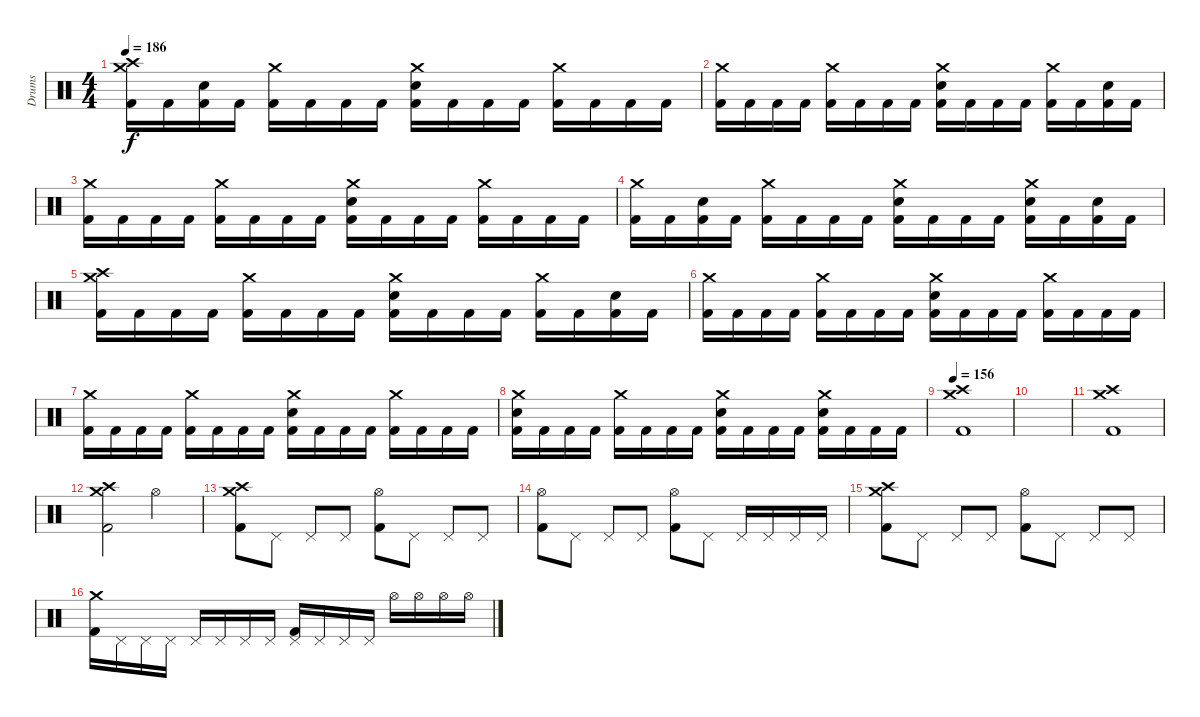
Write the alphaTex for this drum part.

\track ("Drums" "Drums") {instrument percussion}
\staff {score}
\articulation defaults
\ts (4 4)
\tempo 186
\clef neutral
\ks c
("Crash high (hit)" "Crash medium (hit)" "Kick (hit) 2").16{dy f} "Kick (hit) 2".16 ("Snare (hit) 2" "Kick (hit) 2").16 "Kick (hit) 2".16 ("Crash medium (hit)" "Kick (hit) 2").16 "Kick (hit) 2".16 "Kick (hit) 2".16 "Kick (hit) 2".16 ("Crash medium (hit)" "Snare (hit) 2" "Kick (hit) 2").16 "Kick (hit) 2".16 "Kick (hit) 2".16 "Kick (hit) 2".16 ("Crash medium (hit)" "Kick (hit) 2").16 "Kick (hit) 2".16 "Kick (hit) 2".16 "Kick (hit) 2".16 |
("Crash medium (hit)" "Kick (hit) 2").16 "Kick (hit) 2".16 "Kick (hit) 2".16 "Kick (hit) 2".16 ("Crash medium (hit)" "Kick (hit) 2").16 "Kick (hit) 2".16 "Kick (hit) 2".16 "Kick (hit) 2".16 ("Crash medium (hit)" "Snare (hit) 2" "Kick (hit) 2").16 "Kick (hit) 2".16 "Kick (hit) 2".16 "Kick (hit) 2".16 ("Crash medium (hit)" "Kick (hit) 2").16 "Kick (hit) 2".16 ("Snare (hit) 2" "Kick (hit) 2").16 "Kick (hit) 2".16 |
("Crash medium (hit)" "Kick (hit) 2").16 "Kick (hit) 2".16 "Kick (hit) 2".16 "Kick (hit) 2".16 ("Crash medium (hit)" "Kick (hit) 2").16 "Kick (hit) 2".16 "Kick (hit) 2".16 "Kick (hit) 2".16 ("Crash medium (hit)" "Snare (hit) 2" "Kick (hit) 2").16 "Kick (hit) 2".16 "Kick (hit) 2".16 "Kick (hit) 2".16 ("Crash medium (hit)" "Kick (hit) 2").16 "Kick (hit) 2".16 "Kick (hit) 2".16 "Kick (hit) 2".16 |
("Crash medium (hit)" "Kick (hit) 2").16 "Kick (hit) 2".16 ("Snare (hit) 2" "Kick (hit) 2").16 "Kick (hit) 2".16 ("Crash medium (hit)" "Kick (hit) 2").16 "Kick (hit) 2".16 "Kick (hit) 2".16 "Kick (hit) 2".16 ("Crash medium (hit)" "Snare (hit) 2" "Kick (hit) 2").16 "Kick (hit) 2".16 "Kick (hit) 2".16 "Kick (hit) 2".16 ("Crash medium (hit)" "Snare (hit) 2" "Kick (hit) 2").16 "Kick (hit) 2".16 ("Snare (hit) 2" "Kick (hit) 2").16 "Kick (hit) 2".16 |
("Crash high (hit)" "Crash medium (hit)" "Kick (hit) 2").16 "Kick (hit) 2".16 "Kick (hit) 2".16 "Kick (hit) 2".16 ("Crash medium (hit)" "Kick (hit) 2").16 "Kick (hit) 2".16 "Kick (hit) 2".16 "Kick (hit) 2".16 ("Crash medium (hit)" "Snare (hit) 2" "Kick (hit) 2").16 "Kick (hit) 2".16 "Kick (hit) 2".16 "Kick (hit) 2".16 ("Crash medium (hit)" "Kick (hit) 2").16 "Kick (hit) 2".16 ("Snare (hit) 2" "Kick (hit) 2").16 "Kick (hit) 2".16 |
("Crash medium (hit)" "Kick (hit) 2").16 "Kick (hit) 2".16 "Kick (hit) 2".16 "Kick (hit) 2".16 ("Crash medium (hit)" "Kick (hit) 2").16 "Kick (hit) 2".16 "Kick (hit) 2".16 "Kick (hit) 2".16 ("Crash medium (hit)" "Snare (hit) 2" "Kick (hit) 2").16 "Kick (hit) 2".16 "Kick (hit) 2".16 "Kick (hit) 2".16 ("Crash medium (hit)" "Kick (hit) 2").16 "Kick (hit) 2".16 "Kick (hit) 2".16 "Kick (hit) 2".16 |
("Crash medium (hit)" "Kick (hit) 2").16 "Kick (hit) 2".16 "Kick (hit) 2".16 "Kick (hit) 2".16 ("Crash medium (hit)" "Kick (hit) 2").16 "Kick (hit) 2".16 "Kick (hit) 2".16 "Kick (hit) 2".16 ("Crash medium (hit)" "Snare (hit) 2" "Kick (hit) 2").16 "Kick (hit) 2".16 "Kick (hit) 2".16 "Kick (hit) 2".16 ("Crash medium (hit)" "Kick (hit) 2").16 "Kick (hit) 2".16 "Kick (hit) 2".16 "Kick (hit) 2".16 |
("Crash medium (hit)" "Snare (hit) 2" "Kick (hit) 2").16 "Kick (hit) 2".16 "Kick (hit) 2".16 "Kick (hit) 2".16 ("Crash medium (hit)" "Kick (hit) 2").16 "Kick (hit) 2".16 "Kick (hit) 2".16 "Kick (hit) 2".16 ("Crash medium (hit)" "Snare (hit) 2" "Kick (hit) 2").16 "Kick (hit) 2".16 "Kick (hit) 2".16 "Kick (hit) 2".16 ("Crash medium (hit)" "Snare (hit) 2" "Kick (hit) 2").16 "Kick (hit) 2".16 "Kick (hit) 2".16 "Kick (hit) 2".16 |
\tempo 156
("Crash high (hit)" "Crash medium (hit)" "Kick (hit) 2").1 |
|
("Crash high (hit)" "Crash medium (hit)" "Kick (hit) 2").1 |
("Crash high (hit)" "Crash medium (hit)" "Kick (hit) 2").2 "Hi-Hat (open)".2 |
("Crash high (hit)" "Crash medium (hit)" "Kick (hit) 2").8 "Pedal Hi-Hat (hit)".8 "Pedal Hi-Hat (hit)".8 "Pedal Hi-Hat (hit)".8 ("Hi-Hat (open)" "Kick (hit) 2").8 "Pedal Hi-Hat (hit)".8 "Pedal Hi-Hat (hit)".8 "Pedal Hi-Hat (hit)".8 |
("Hi-Hat (open)" "Kick (hit) 2").8 "Pedal Hi-Hat (hit)".8 "Pedal Hi-Hat (hit)".8 "Pedal Hi-Hat (hit)".8 ("Hi-Hat (open)" "Kick (hit) 2").8 "Pedal Hi-Hat (hit)".8 "Pedal Hi-Hat (hit)".16 "Pedal Hi-Hat (hit)".16 "Pedal Hi-Hat (hit)".16 "Pedal Hi-Hat (hit)".16 |
("Crash high (hit)" "Crash medium (hit)" "Kick (hit) 2").8 "Pedal Hi-Hat (hit)".8 "Pedal Hi-Hat (hit)".8 "Pedal Hi-Hat (hit)".8 ("Hi-Hat (open)" "Kick (hit) 2").8 "Pedal Hi-Hat (hit)".8 "Pedal Hi-Hat (hit)".8 "Pedal Hi-Hat (hit)".8 |
("Crash medium (hit)" "Kick (hit) 2").16 "Pedal Hi-Hat (hit)".16 "Pedal Hi-Hat (hit)".16 "Pedal Hi-Hat (hit)".16 "Pedal Hi-Hat (hit)".16 "Pedal Hi-Hat (hit)".16 "Pedal Hi-Hat (hit)".16 "Pedal Hi-Hat (hit)".16 ("Pedal Hi-Hat (hit)" "Kick (hit) 2").16 "Pedal Hi-Hat (hit)".16 "Pedal Hi-Hat (hit)".16 "Pedal Hi-Hat (hit)".16 "Hi-Hat (open)".16 "Hi-Hat (open)".16 "Hi-Hat (open)".16 "Hi-Hat (open)".16
